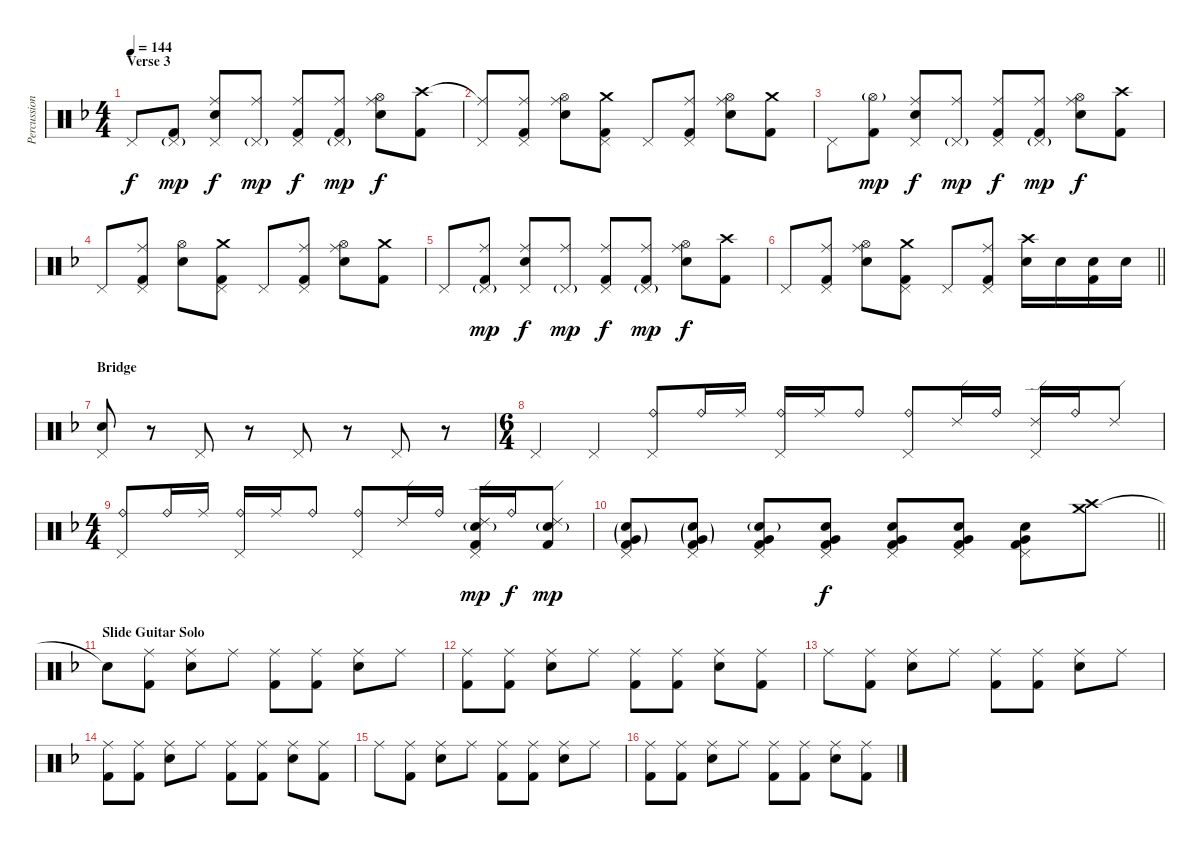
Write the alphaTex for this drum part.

\track ("Percussion" "Percussion") {instrument percussion}
\staff {score}
\articulation defaults
\ts (4 4)
\section ("" "Verse 3")
\tempo 144
\clef neutral
\ks f "Pedal Hi-Hat (hit)".8{dy f}
("Pedal Hi-Hat (hit)"{g} "Kick (hit) 2").8{dy mp} ("Ride (middle)" "Pedal Hi-Hat (hit)" "Electric Snare (hit)").8{dy f} ("Ride (middle)" "Pedal Hi-Hat (hit)"{g}).8{dy mp} ("Ride (middle)" "Pedal Hi-Hat (hit)" "Kick (hit) 2").8{dy f} ("Ride (middle)" "Pedal Hi-Hat (hit)"{g} "Kick (hit) 2").8{dy mp} ("Ride (middle)" "Hi-Hat (open)" "Electric Snare (hit)").8{dy f} ("Crash high (hit)" "Kick (hit) 2").8 |
("Ride (middle)"{t} "Pedal Hi-Hat (hit)").8 ("Ride (middle)" "Pedal Hi-Hat (hit)" "Kick (hit) 2").8 ("Ride (middle)" "Hi-Hat (open)" "Electric Snare (hit)").8 ("Crash medium (hit)" "Pedal Hi-Hat (hit)" "Kick (hit) 2").8 "Pedal Hi-Hat (hit)".8 ("Ride (middle)" "Pedal Hi-Hat (hit)" "Kick (hit) 2").8 ("Ride (middle)" "Hi-Hat (open)" "Electric Snare (hit)").8 ("Crash medium (hit)" "Kick (hit) 2").8 |
"Pedal Hi-Hat (hit)".8 ("Hi-Hat (open)"{g} "Kick (hit) 2").8{dy mp} ("Ride (middle)" "Pedal Hi-Hat (hit)" "Electric Snare (hit)").8{dy f} ("Ride (middle)" "Pedal Hi-Hat (hit)"{g}).8{dy mp} ("Ride (middle)" "Pedal Hi-Hat (hit)" "Kick (hit) 2").8{dy f} ("Ride (middle)" "Pedal Hi-Hat (hit)"{g} "Kick (hit) 2").8{dy mp} ("Ride (middle)" "Hi-Hat (open)" "Electric Snare (hit)").8{dy f} ("Crash high (hit)" "Kick (hit) 2").8 |
"Pedal Hi-Hat (hit)".8 ("Ride (middle)" "Pedal Hi-Hat (hit)" "Kick (hit) 2").8 ("Hi-Hat (open)" "Electric Snare (hit)").8 ("Crash medium (hit)" "Pedal Hi-Hat (hit)" "Kick (hit) 2").8 "Pedal Hi-Hat (hit)".8 ("Ride (middle)" "Pedal Hi-Hat (hit)" "Kick (hit) 2").8 ("Ride (middle)" "Hi-Hat (open)" "Electric Snare (hit)").8 ("Crash medium (hit)" "Kick (hit) 2").8 |
"Pedal Hi-Hat (hit)".8 ("Ride (middle)" "Pedal Hi-Hat (hit)"{g} "Kick (hit) 2").8{dy mp} ("Ride (middle)" "Pedal Hi-Hat (hit)" "Electric Snare (hit)").8{dy f} ("Ride (middle)" "Pedal Hi-Hat (hit)"{g}).8{dy mp} ("Ride (middle)" "Pedal Hi-Hat (hit)" "Kick (hit) 2").8{dy f} ("Ride (middle)" "Pedal Hi-Hat (hit)"{g} "Kick (hit) 2").8{dy mp} ("Ride (middle)" "Hi-Hat (open)" "Electric Snare (hit)").8{dy f} ("Crash high (hit)" "Kick (hit) 2").8 |
\barLineRight lightlight "Pedal Hi-Hat (hit)".8
("Ride (middle)" "Pedal Hi-Hat (hit)" "Kick (hit) 2").8 ("Ride (middle)" "Hi-Hat (open)" "Electric Snare (hit)").8 ("Crash medium (hit)" "Pedal Hi-Hat (hit)" "Kick (hit) 2").8 "Pedal Hi-Hat (hit)".8 ("Ride (middle)" "Pedal Hi-Hat (hit)" "Kick (hit) 2").8 ("Crash high (hit)" "Electric Snare (hit)").16 "Electric Snare (hit)".16 ("Electric Snare (hit)" "Kick (hit) 2").16 "Electric Snare (hit)".16 |
\section ("" "Bridge")
("Electric Snare (hit)" "Pedal Hi-Hat (hit)").8 r.8 "Pedal Hi-Hat (hit)".8 r.8 "Pedal Hi-Hat (hit)".8 r.8 "Pedal Hi-Hat (hit)".8 r.8 |
\ts (6 4)
"Pedal Hi-Hat (hit)".4 "Pedal Hi-Hat (hit)".4 ("Ride (bell)" "Pedal Hi-Hat (hit)").8 "Ride (bell)".16 "Ride (middle)".16 ("Ride (bell)" "Pedal Hi-Hat (hit)").16 "Ride (middle)".16 "Ride (bell)".8 ("Ride (bell)" "Pedal Hi-Hat (hit)").8 "Ride (edge) 2".16 "Ride (bell)".16 ("Ride (edge) 2" "Pedal Hi-Hat (hit)").16 "Ride (bell)".16 "Ride (edge) 2".8 |
\ts (4 4)
("Ride (bell)" "Pedal Hi-Hat (hit)").8 "Ride (bell)".16 "Ride (middle)".16 ("Ride (bell)" "Pedal Hi-Hat (hit)").16 "Ride (middle)".16 "Ride (bell)".8 ("Ride (bell)" "Pedal Hi-Hat (hit)").8 "Ride (edge) 2".16 "Ride (bell)".16 ("Ride (edge) 2" "Electric Snare (hit)"{g} "Pedal Hi-Hat (hit)" "Kick (hit) 2").16{dy mp} "Ride (bell)".16{dy f} ("Ride (edge) 2" "Electric Snare (hit)"{g} "Kick (hit) 2").8{dy mp} |
\barLineRight lightlight
("Pedal Hi-Hat (hit)" "Electric Snare (hit)"{g} "Very Low Tom (hit)"{g} "Kick (hit) 2").8 ("Pedal Hi-Hat (hit)" "Electric Snare (hit)"{g} "Very Low Tom (hit)"{g} "Kick (hit) 2").8 ("Pedal Hi-Hat (hit)" "Electric Snare (hit)"{g} "Very Low Tom (hit)" "Kick (hit) 2").8 ("Pedal Hi-Hat (hit)" "Electric Snare (hit)" "Very Low Tom (hit)" "Kick (hit) 2").8{dy f} ("Pedal Hi-Hat (hit)" "Electric Snare (hit)" "Very Low Tom (hit)" "Kick (hit) 2").8 ("Pedal Hi-Hat (hit)" "Electric Snare (hit)" "Very Low Tom (hit)" "Kick (hit) 2").8 ("Pedal Hi-Hat (hit)" "Electric Snare (hit)" "Very Low Tom (hit)" "Kick (hit) 2").8 ("Crash medium (hit)" "Crash high (hit)").8 |
\section ("" "Slide Guitar Solo")
"Snare (hit)"{t}.8 ("Ride (middle)" "Kick (hit) 2").8 ("Ride (middle)" "Electric Snare (hit)").8 "Ride (middle)".8 ("Ride (middle)" "Kick (hit) 2").8 ("Ride (middle)" "Kick (hit) 2").8 ("Ride (middle)" "Electric Snare (hit)").8 "Ride (middle)".8 |
("Ride (middle)" "Kick (hit) 2").8 ("Ride (middle)" "Kick (hit) 2").8 ("Ride (middle)" "Electric Snare (hit)").8 "Ride (middle)".8 ("Ride (middle)" "Kick (hit) 2").8 ("Ride (middle)" "Kick (hit) 2").8 ("Ride (middle)" "Electric Snare (hit)").8 ("Ride (middle)" "Kick (hit) 2").8 |
"Ride (middle)".8 ("Ride (middle)" "Kick (hit) 2").8 ("Ride (middle)" "Electric Snare (hit)").8 "Ride (middle)".8 ("Ride (middle)" "Kick (hit) 2").8 ("Ride (middle)" "Kick (hit) 2").8 ("Ride (middle)" "Electric Snare (hit)").8 "Ride (middle)".8 |
("Ride (middle)" "Kick (hit) 2").8 ("Ride (middle)" "Kick (hit) 2").8 ("Ride (middle)" "Electric Snare (hit)").8 "Ride (middle)".8 ("Ride (middle)" "Kick (hit) 2").8 ("Ride (middle)" "Kick (hit) 2").8 ("Ride (middle)" "Electric Snare (hit)").8 ("Ride (middle)" "Kick (hit) 2").8 |
"Ride (middle)".8 ("Ride (middle)" "Kick (hit) 2").8 ("Ride (middle)" "Electric Snare (hit)").8 "Ride (middle)".8 ("Ride (middle)" "Kick (hit) 2").8 ("Ride (middle)" "Kick (hit) 2").8 ("Ride (middle)" "Electric Snare (hit)").8 "Ride (middle)".8 |
("Ride (middle)" "Kick (hit) 2").8 ("Ride (middle)" "Kick (hit) 2").8 ("Ride (middle)" "Electric Snare (hit)").8 "Ride (middle)".8 ("Ride (middle)" "Kick (hit) 2").8 ("Ride (middle)" "Kick (hit) 2").8 ("Ride (middle)" "Electric Snare (hit)").8 ("Ride (middle)" "Kick (hit) 2").8
